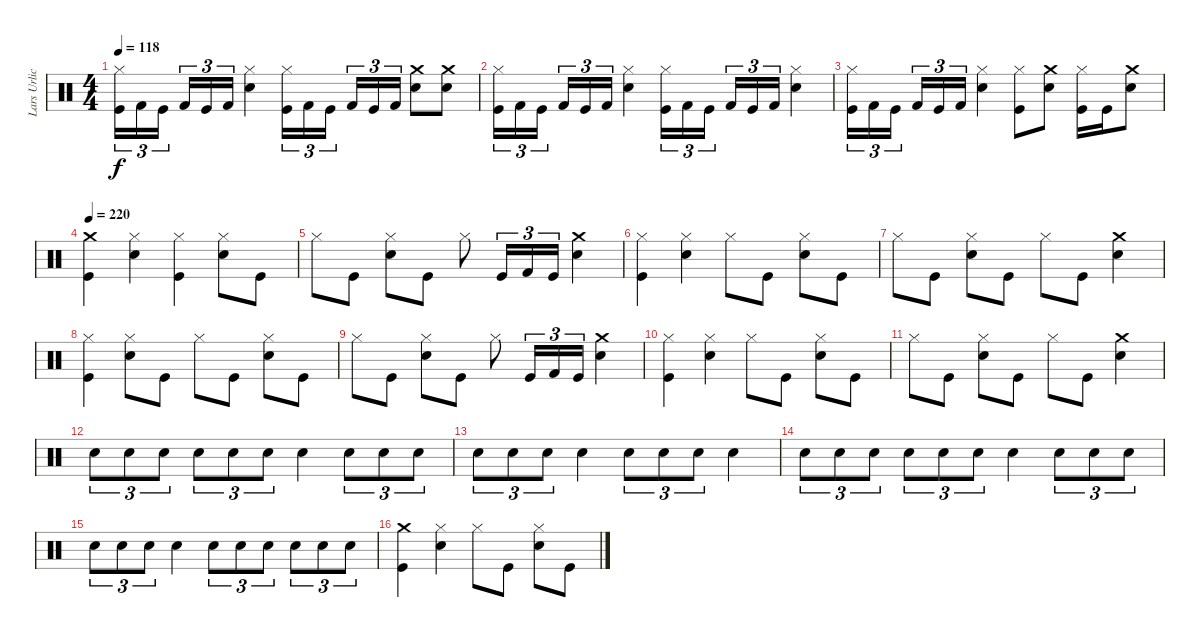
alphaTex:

\track ("Lars Urlich" "Lars Urlic") {instrument percussion}
\staff {score}
\articulation defaults
\ts (4 4)
\tempo 118
\clef neutral
\ks c
("Hi-Hat (closed)" "Kick (hit)").16{tu (3 2) dy f} "Kick (hit) 2".16{tu (3 2)} "Kick (hit)".16{tu (3 2)} "Kick (hit) 2".16{tu (3 2)} "Kick (hit)".16{tu (3 2)} "Kick (hit) 2".16{tu (3 2)} ("Snare (hit) 2" "Hi-Hat (closed)").4 ("Hi-Hat (closed)" "Kick (hit)").16{tu (3 2)} "Kick (hit) 2".16{tu (3 2)} "Kick (hit)".16{tu (3 2)} "Kick (hit) 2".16{tu (3 2)} "Kick (hit)".16{tu (3 2)} "Kick (hit) 2".16{tu (3 2)} ("Snare (hit) 2" "Crash medium (hit)").8 ("Snare (hit) 2" "Crash medium (hit)").8 |
("Hi-Hat (closed)" "Kick (hit)").16{tu (3 2)} "Kick (hit) 2".16{tu (3 2)} "Kick (hit)".16{tu (3 2)} "Kick (hit) 2".16{tu (3 2)} "Kick (hit)".16{tu (3 2)} "Kick (hit) 2".16{tu (3 2)} ("Snare (hit) 2" "Hi-Hat (closed)").4 ("Hi-Hat (closed)" "Kick (hit)").16{tu (3 2)} "Kick (hit) 2".16{tu (3 2)} "Kick (hit)".16{tu (3 2)} "Kick (hit) 2".16{tu (3 2)} "Kick (hit)".16{tu (3 2)} "Kick (hit) 2".16{tu (3 2)} ("Snare (hit) 2" "Hi-Hat (closed)").4 |
("Hi-Hat (closed)" "Kick (hit)").16{tu (3 2)} "Kick (hit) 2".16{tu (3 2)} "Kick (hit)".16{tu (3 2)} "Kick (hit) 2".16{tu (3 2)} "Kick (hit)".16{tu (3 2)} "Kick (hit) 2".16{tu (3 2)} ("Snare (hit) 2" "Hi-Hat (closed)").4 ("Kick (hit)" "Hi-Hat (closed)").8 ("Snare (hit) 2" "Crash medium (hit)").8 ("Kick (hit)" "Hi-Hat (closed)").16 "Kick (hit)".16 ("Crash medium (hit)" "Snare (hit) 2").8 |
\tempo 220
("Kick (hit)" "Crash medium (hit)").4 ("Hi-Hat (closed)" "Snare (hit) 2").4 ("Kick (hit)" "Hi-Hat (closed)").4 ("Hi-Hat (closed)" "Snare (hit) 2").8 "Kick (hit)".8 |
"Hi-Hat (closed)".8 "Kick (hit)".8 ("Snare (hit) 2" "Hi-Hat (closed)").8 "Kick (hit)".8 "Hi-Hat (closed)".8 "Kick (hit)".16{tu (3 2)} "Kick (hit) 2".16{tu (3 2)} "Kick (hit)".16{tu (3 2)} ("Crash medium (hit)" "Snare (hit) 2").4 |
("Hi-Hat (closed)" "Kick (hit)").4 ("Snare (hit) 2" "Hi-Hat (closed)").4 "Hi-Hat (closed)".8 "Kick (hit)".8 ("Snare (hit) 2" "Hi-Hat (closed)").8 "Kick (hit)".8 |
"Hi-Hat (closed)".8 "Kick (hit)".8 ("Snare (hit) 2" "Hi-Hat (closed)").8 "Kick (hit)".8 "Hi-Hat (closed)".8 "Kick (hit)".8 ("Crash medium (hit)" "Snare (hit) 2").4 |
("Kick (hit)" "Hi-Hat (closed)").4 ("Snare (hit) 2" "Hi-Hat (closed)").8 "Kick (hit)".8 "Hi-Hat (closed)".8 "Kick (hit)".8 ("Hi-Hat (closed)" "Snare (hit) 2").8 "Kick (hit)".8 |
"Hi-Hat (closed)".8 "Kick (hit)".8 ("Snare (hit) 2" "Hi-Hat (closed)").8 "Kick (hit)".8 "Hi-Hat (closed)".8 "Kick (hit)".16{tu (3 2)} "Kick (hit) 2".16{tu (3 2)} "Kick (hit)".16{tu (3 2)} ("Crash medium (hit)" "Snare (hit) 2").4 |
("Hi-Hat (closed)" "Kick (hit)").4 ("Snare (hit) 2" "Hi-Hat (closed)").4 "Hi-Hat (closed)".8 "Kick (hit)".8 ("Snare (hit) 2" "Hi-Hat (closed)").8 "Kick (hit)".8 |
"Hi-Hat (closed)".8 "Kick (hit)".8 ("Snare (hit) 2" "Hi-Hat (closed)").8 "Kick (hit)".8 "Hi-Hat (closed)".8 "Kick (hit)".8 ("Crash medium (hit)" "Snare (hit) 2").4 |
"Snare (hit) 2".8{tu (3 2)} "Snare (hit) 2".8{tu (3 2)} "Snare (hit) 2".8{tu (3 2)} "Snare (hit) 2".8{tu (3 2)} "Snare (hit) 2".8{tu (3 2)} "Snare (hit) 2".8{tu (3 2)} "Snare (hit) 2".4 "Snare (hit) 2".8{tu (3 2)} "Snare (hit) 2".8{tu (3 2)} "Snare (hit) 2".8{tu (3 2)} |
"Snare (hit) 2".8{tu (3 2)} "Snare (hit) 2".8{tu (3 2)} "Snare (hit) 2".8{tu (3 2)} "Snare (hit) 2".4 "Snare (hit) 2".8{tu (3 2)} "Snare (hit) 2".8{tu (3 2)} "Snare (hit) 2".8{tu (3 2)} "Snare (hit) 2".4 |
"Snare (hit) 2".8{tu (3 2)} "Snare (hit) 2".8{tu (3 2)} "Snare (hit) 2".8{tu (3 2)} "Snare (hit) 2".8{tu (3 2)} "Snare (hit) 2".8{tu (3 2)} "Snare (hit) 2".8{tu (3 2)} "Snare (hit) 2".4 "Snare (hit) 2".8{tu (3 2)} "Snare (hit) 2".8{tu (3 2)} "Snare (hit) 2".8{tu (3 2)} |
"Snare (hit) 2".8{tu (3 2)} "Snare (hit) 2".8{tu (3 2)} "Snare (hit) 2".8{tu (3 2)} "Snare (hit) 2".4 "Snare (hit) 2".8{tu (3 2)} "Snare (hit) 2".8{tu (3 2)} "Snare (hit) 2".8{tu (3 2)} "Snare (hit) 2".8{tu (3 2)} "Snare (hit) 2".8{tu (3 2)} "Snare (hit) 2".8{tu (3 2)} |
("Kick (hit)" "Crash medium (hit)").4 ("Hi-Hat (closed)" "Snare (hit) 2").4 "Hi-Hat (closed)".8 "Kick (hit)".8 ("Hi-Hat (closed)" "Snare (hit) 2").8 "Kick (hit)".8
